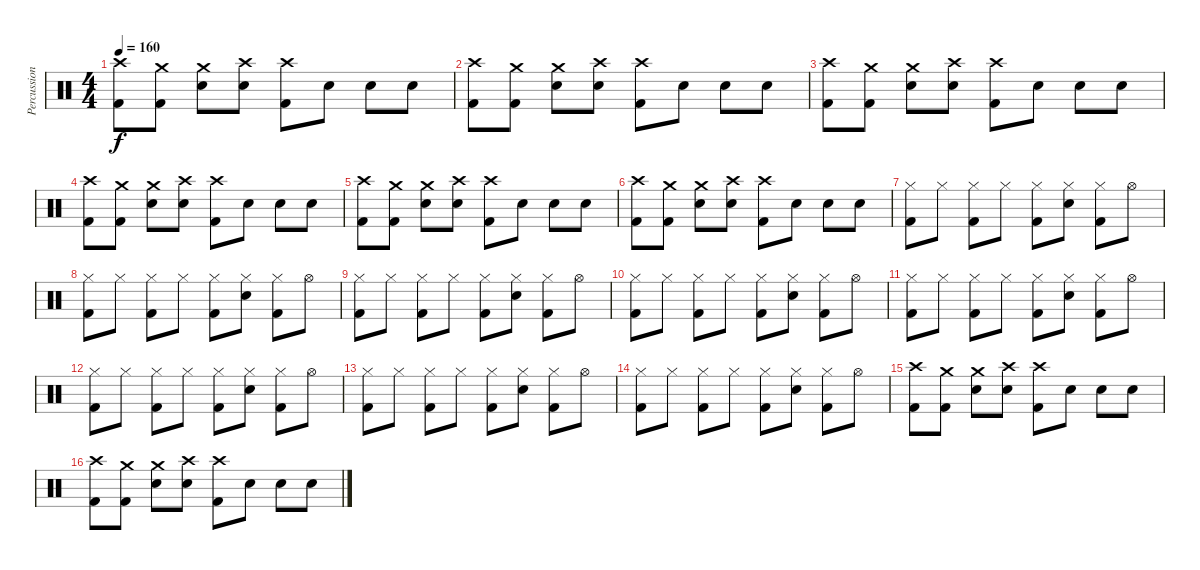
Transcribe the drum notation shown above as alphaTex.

\track ("Percussion" "Percussion") {instrument percussion}
\staff {score}
\articulation defaults
\ts (4 4)
\tempo 160
\clef neutral
\ks c
("Crash high (hit)" "Kick (hit) 2").8{dy f} ("Crash medium (hit)" "Kick (hit) 2").8 ("Crash medium (hit)" "Snare (hit) 2").8 ("Crash high (hit)" "Snare (hit) 2").8 ("Crash high (hit)" "Kick (hit) 2").8 "Snare (hit) 2".8 "Snare (hit) 2".8 "Snare (hit) 2".8 |
("Crash high (hit)" "Kick (hit) 2").8 ("Crash medium (hit)" "Kick (hit) 2").8 ("Crash medium (hit)" "Snare (hit) 2").8 ("Crash high (hit)" "Snare (hit) 2").8 ("Crash high (hit)" "Kick (hit) 2").8 "Snare (hit) 2".8 "Snare (hit) 2".8 "Snare (hit) 2".8 |
("Crash high (hit)" "Kick (hit) 2").8 ("Crash medium (hit)" "Kick (hit) 2").8 ("Crash medium (hit)" "Snare (hit) 2").8 ("Crash high (hit)" "Snare (hit) 2").8 ("Crash high (hit)" "Kick (hit) 2").8 "Snare (hit) 2".8 "Snare (hit) 2".8 "Snare (hit) 2".8 |
("Crash high (hit)" "Kick (hit) 2").8 ("Crash medium (hit)" "Kick (hit) 2").8 ("Crash medium (hit)" "Snare (hit) 2").8 ("Crash high (hit)" "Snare (hit) 2").8 ("Crash high (hit)" "Kick (hit) 2").8 "Snare (hit) 2".8 "Snare (hit) 2".8 "Snare (hit) 2".8 |
("Crash high (hit)" "Kick (hit) 2").8 ("Crash medium (hit)" "Kick (hit) 2").8 ("Crash medium (hit)" "Snare (hit) 2").8 ("Crash high (hit)" "Snare (hit) 2").8 ("Crash high (hit)" "Kick (hit) 2").8 "Snare (hit) 2".8 "Snare (hit) 2".8 "Snare (hit) 2".8 |
("Crash high (hit)" "Kick (hit) 2").8 ("Crash medium (hit)" "Kick (hit) 2").8 ("Crash medium (hit)" "Snare (hit) 2").8 ("Crash high (hit)" "Snare (hit) 2").8 ("Crash high (hit)" "Kick (hit) 2").8 "Snare (hit) 2".8 "Snare (hit) 2".8 "Snare (hit) 2".8 |
("Hi-Hat (closed)" "Kick (hit) 2").8 "Hi-Hat (closed)".8 ("Hi-Hat (closed)" "Kick (hit) 2").8 "Hi-Hat (closed)".8 ("Hi-Hat (closed)" "Kick (hit) 2").8 ("Hi-Hat (closed)" "Snare (hit) 2").8 ("Hi-Hat (closed)" "Kick (hit) 2").8 "Hi-Hat (open)".8 |
("Hi-Hat (closed)" "Kick (hit) 2").8 "Hi-Hat (closed)".8 ("Hi-Hat (closed)" "Kick (hit) 2").8 "Hi-Hat (closed)".8 ("Hi-Hat (closed)" "Kick (hit) 2").8 ("Hi-Hat (closed)" "Snare (hit) 2").8 ("Hi-Hat (closed)" "Kick (hit) 2").8 "Hi-Hat (open)".8 |
("Hi-Hat (closed)" "Kick (hit) 2").8 "Hi-Hat (closed)".8 ("Hi-Hat (closed)" "Kick (hit) 2").8 "Hi-Hat (closed)".8 ("Hi-Hat (closed)" "Kick (hit) 2").8 ("Hi-Hat (closed)" "Snare (hit) 2").8 ("Hi-Hat (closed)" "Kick (hit) 2").8 "Hi-Hat (open)".8 |
("Hi-Hat (closed)" "Kick (hit) 2").8 "Hi-Hat (closed)".8 ("Hi-Hat (closed)" "Kick (hit) 2").8 "Hi-Hat (closed)".8 ("Hi-Hat (closed)" "Kick (hit) 2").8 ("Hi-Hat (closed)" "Snare (hit) 2").8 ("Hi-Hat (closed)" "Kick (hit) 2").8 "Hi-Hat (open)".8 |
("Hi-Hat (closed)" "Kick (hit) 2").8 "Hi-Hat (closed)".8 ("Hi-Hat (closed)" "Kick (hit) 2").8 "Hi-Hat (closed)".8 ("Hi-Hat (closed)" "Kick (hit) 2").8 ("Hi-Hat (closed)" "Snare (hit) 2").8 ("Hi-Hat (closed)" "Kick (hit) 2").8 "Hi-Hat (open)".8 |
("Hi-Hat (closed)" "Kick (hit) 2").8 "Hi-Hat (closed)".8 ("Hi-Hat (closed)" "Kick (hit) 2").8 "Hi-Hat (closed)".8 ("Hi-Hat (closed)" "Kick (hit) 2").8 ("Hi-Hat (closed)" "Snare (hit) 2").8 ("Hi-Hat (closed)" "Kick (hit) 2").8 "Hi-Hat (open)".8 |
("Hi-Hat (closed)" "Kick (hit) 2").8 "Hi-Hat (closed)".8 ("Hi-Hat (closed)" "Kick (hit) 2").8 "Hi-Hat (closed)".8 ("Hi-Hat (closed)" "Kick (hit) 2").8 ("Hi-Hat (closed)" "Snare (hit) 2").8 ("Hi-Hat (closed)" "Kick (hit) 2").8 "Hi-Hat (open)".8 |
("Hi-Hat (closed)" "Kick (hit) 2").8 "Hi-Hat (closed)".8 ("Hi-Hat (closed)" "Kick (hit) 2").8 "Hi-Hat (closed)".8 ("Hi-Hat (closed)" "Kick (hit) 2").8 ("Hi-Hat (closed)" "Snare (hit) 2").8 ("Hi-Hat (closed)" "Kick (hit) 2").8 "Hi-Hat (open)".8 |
("Crash high (hit)" "Kick (hit) 2").8 ("Crash medium (hit)" "Kick (hit) 2").8 ("Crash medium (hit)" "Snare (hit) 2").8 ("Crash high (hit)" "Snare (hit) 2").8 ("Crash high (hit)" "Kick (hit) 2").8 "Snare (hit) 2".8 "Snare (hit) 2".8 "Snare (hit) 2".8 |
("Crash high (hit)" "Kick (hit) 2").8 ("Crash medium (hit)" "Kick (hit) 2").8 ("Crash medium (hit)" "Snare (hit) 2").8 ("Crash high (hit)" "Snare (hit) 2").8 ("Crash high (hit)" "Kick (hit) 2").8 "Snare (hit) 2".8 "Snare (hit) 2".8 "Snare (hit) 2".8
